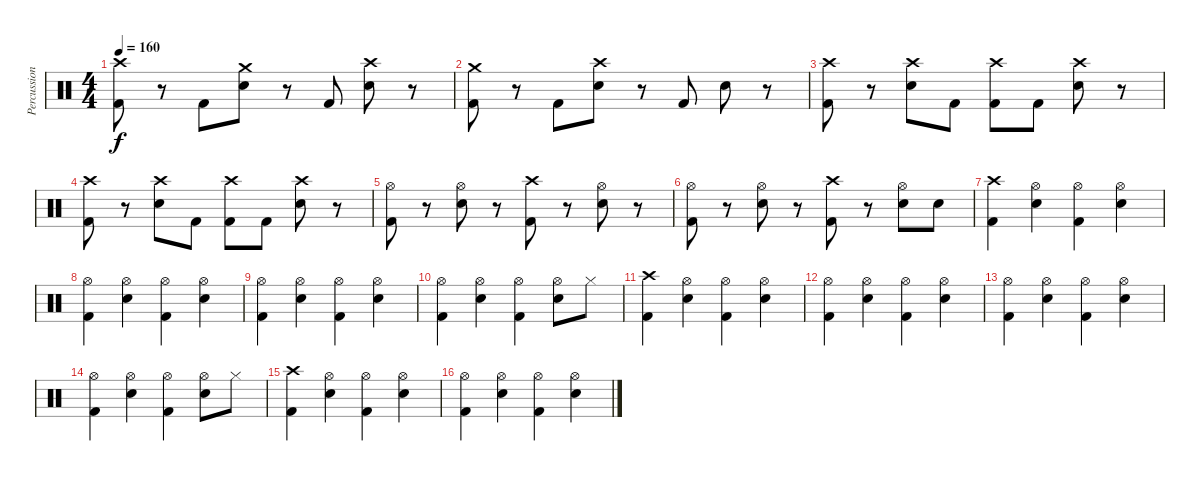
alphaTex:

\track ("Percussion" "Percussion") {instrument percussion}
\staff {score}
\articulation defaults
\ts (4 4)
\tempo 160
\clef neutral
\ks c
("Crash high (hit)" "Kick (hit) 2").8{dy f} r.8 "Kick (hit) 2".8 ("Crash medium (hit)" "Electric Snare (hit)").8 r.8 "Kick (hit) 2".8 ("Crash high (hit)" "Electric Snare (hit)").8 r.8 |
("Crash medium (hit)" "Kick (hit) 2").8 r.8 "Kick (hit) 2".8 ("Crash high (hit)" "Electric Snare (hit)").8 r.8 "Kick (hit) 2".8 "Electric Snare (hit)".8 r.8 |
("Crash high (hit)" "Kick (hit) 2").8 r.8 ("Crash high (hit)" "Electric Snare (hit)").8 "Kick (hit) 2".8 ("Crash high (hit)" "Kick (hit) 2").8 "Kick (hit) 2".8 ("Crash high (hit)" "Electric Snare (hit)").8 r.8 |
("Crash high (hit)" "Kick (hit) 2").8 r.8 ("Crash high (hit)" "Electric Snare (hit)").8 "Kick (hit) 2".8 ("Crash high (hit)" "Kick (hit) 2").8 "Kick (hit) 2".8 ("Crash high (hit)" "Electric Snare (hit)").8 r.8 |
("Hi-Hat (open)" "Kick (hit) 2").8 r.8 ("Hi-Hat (open)" "Electric Snare (hit)").8 r.8 ("Crash high (hit)" "Kick (hit) 2").8 r.8 ("Hi-Hat (open)" "Electric Snare (hit)").8 r.8 |
("Hi-Hat (open)" "Kick (hit) 2").8 r.8 ("Hi-Hat (open)" "Electric Snare (hit)").8 r.8 ("Crash high (hit)" "Kick (hit) 2").8 r.8 ("Hi-Hat (open)" "Electric Snare (hit)").8 "Electric Snare (hit)".8 |
("Crash high (hit)" "Kick (hit) 2").4 ("Hi-Hat (open)" "Electric Snare (hit)").4 ("Hi-Hat (open)" "Kick (hit) 2").4 ("Hi-Hat (open)" "Electric Snare (hit)").4 |
("Hi-Hat (open)" "Kick (hit) 2").4 ("Hi-Hat (open)" "Electric Snare (hit)").4 ("Hi-Hat (open)" "Kick (hit) 2").4 ("Hi-Hat (open)" "Electric Snare (hit)").4 |
("Hi-Hat (open)" "Kick (hit) 2").4 ("Hi-Hat (open)" "Electric Snare (hit)").4 ("Hi-Hat (open)" "Kick (hit) 2").4 ("Hi-Hat (open)" "Electric Snare (hit)").4 |
("Hi-Hat (open)" "Kick (hit) 2").4 ("Hi-Hat (open)" "Electric Snare (hit)").4 ("Hi-Hat (open)" "Kick (hit) 2").4 ("Hi-Hat (open)" "Electric Snare (hit)").8 "Hi-Hat (closed)".8 |
("Crash high (hit)" "Kick (hit) 2").4 ("Hi-Hat (open)" "Electric Snare (hit)").4 ("Hi-Hat (open)" "Kick (hit) 2").4 ("Hi-Hat (open)" "Electric Snare (hit)").4 |
("Hi-Hat (open)" "Kick (hit) 2").4 ("Hi-Hat (open)" "Electric Snare (hit)").4 ("Hi-Hat (open)" "Kick (hit) 2").4 ("Hi-Hat (open)" "Electric Snare (hit)").4 |
("Hi-Hat (open)" "Kick (hit) 2").4 ("Hi-Hat (open)" "Electric Snare (hit)").4 ("Hi-Hat (open)" "Kick (hit) 2").4 ("Hi-Hat (open)" "Electric Snare (hit)").4 |
("Hi-Hat (open)" "Kick (hit) 2").4 ("Hi-Hat (open)" "Electric Snare (hit)").4 ("Hi-Hat (open)" "Kick (hit) 2").4 ("Hi-Hat (open)" "Electric Snare (hit)").8 "Hi-Hat (closed)".8 |
("Crash high (hit)" "Kick (hit) 2").4 ("Hi-Hat (open)" "Electric Snare (hit)").4 ("Hi-Hat (open)" "Kick (hit) 2").4 ("Hi-Hat (open)" "Electric Snare (hit)").4 |
("Hi-Hat (open)" "Kick (hit) 2").4 ("Hi-Hat (open)" "Electric Snare (hit)").4 ("Hi-Hat (open)" "Kick (hit) 2").4 ("Hi-Hat (open)" "Electric Snare (hit)").4
